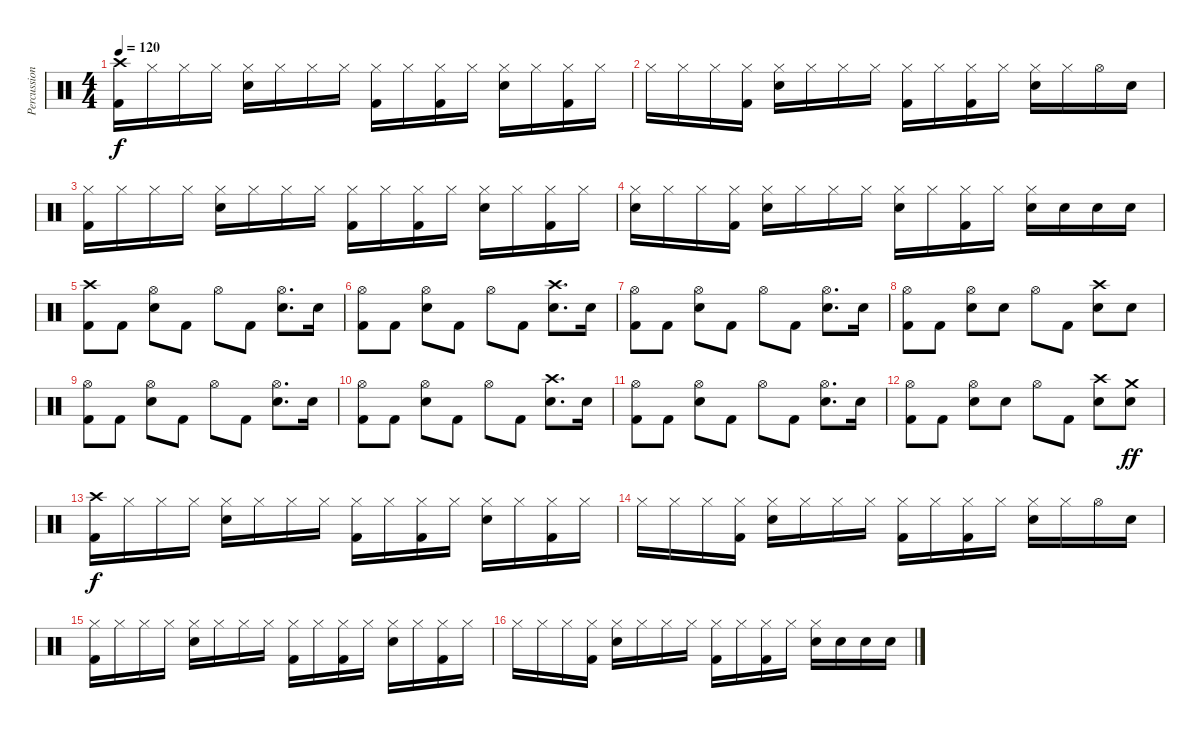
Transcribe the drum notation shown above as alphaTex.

\track ("Percussion" "Percussion") {instrument percussion}
\staff {score}
\articulation defaults
\ts (4 4)
\tempo 120
\clef neutral
\ks c
("Crash high (hit)" "Kick (hit) 2").16{dy f} "Hi-Hat (closed)".16 "Hi-Hat (closed)".16 "Hi-Hat (closed)".16 ("Hi-Hat (closed)" "Electric Snare (hit)").16 "Hi-Hat (closed)".16 "Hi-Hat (closed)".16 "Hi-Hat (closed)".16 ("Hi-Hat (closed)" "Kick (hit) 2").16 "Hi-Hat (closed)".16 ("Hi-Hat (closed)" "Kick (hit) 2").16 "Hi-Hat (closed)".16 ("Hi-Hat (closed)" "Electric Snare (hit)").16 "Hi-Hat (closed)".16 ("Hi-Hat (closed)" "Kick (hit) 2").16 "Hi-Hat (closed)".16 |
"Hi-Hat (closed)".16 "Hi-Hat (closed)".16 "Hi-Hat (closed)".16 ("Hi-Hat (closed)" "Kick (hit) 2").16 ("Hi-Hat (closed)" "Electric Snare (hit)").16 "Hi-Hat (closed)".16 "Hi-Hat (closed)".16 "Hi-Hat (closed)".16 ("Hi-Hat (closed)" "Kick (hit) 2").16 "Hi-Hat (closed)".16 ("Hi-Hat (closed)" "Kick (hit) 2").16 "Hi-Hat (closed)".16 ("Hi-Hat (closed)" "Electric Snare (hit)").16 "Hi-Hat (closed)".16 "Hi-Hat (open)".16 "Electric Snare (hit)".16 |
("Hi-Hat (closed)" "Kick (hit) 2").16 "Hi-Hat (closed)".16 "Hi-Hat (closed)".16 "Hi-Hat (closed)".16 ("Hi-Hat (closed)" "Electric Snare (hit)").16 "Hi-Hat (closed)".16 "Hi-Hat (closed)".16 "Hi-Hat (closed)".16 ("Hi-Hat (closed)" "Kick (hit) 2").16 "Hi-Hat (closed)".16 ("Hi-Hat (closed)" "Kick (hit) 2").16 "Hi-Hat (closed)".16 ("Hi-Hat (closed)" "Electric Snare (hit)").16 "Hi-Hat (closed)".16 ("Hi-Hat (closed)" "Kick (hit) 2").16 "Hi-Hat (closed)".16 |
("Hi-Hat (closed)" "Electric Snare (hit)").16 "Hi-Hat (closed)".16 "Hi-Hat (closed)".16 ("Hi-Hat (closed)" "Kick (hit) 2").16 ("Hi-Hat (closed)" "Electric Snare (hit)").16 "Hi-Hat (closed)".16 "Hi-Hat (closed)".16 "Hi-Hat (closed)".16 ("Hi-Hat (closed)" "Electric Snare (hit)").16 "Hi-Hat (closed)".16 ("Hi-Hat (closed)" "Kick (hit) 2").16 "Hi-Hat (closed)".16 ("Hi-Hat (closed)" "Electric Snare (hit)").16 "Electric Snare (hit)".16 "Electric Snare (hit)".16 "Electric Snare (hit)".16 |
("Crash high (hit)" "Kick (hit) 2").8 "Kick (hit) 2".8 ("Hi-Hat (open)" "Electric Snare (hit)").8 "Kick (hit) 2".8 "Hi-Hat (open)".8 "Kick (hit) 2".8 ("Hi-Hat (open)" "Electric Snare (hit)").8{d} "Electric Snare (hit)".16 |
("Hi-Hat (open)" "Kick (hit) 2").8 "Kick (hit) 2".8 ("Hi-Hat (open)" "Electric Snare (hit)").8 "Kick (hit) 2".8 "Hi-Hat (open)".8 "Kick (hit) 2".8 ("Crash high (hit)" "Electric Snare (hit)").8{d} "Electric Snare (hit)".16 |
("Hi-Hat (open)" "Kick (hit) 2").8 "Kick (hit) 2".8 ("Hi-Hat (open)" "Electric Snare (hit)").8 "Kick (hit) 2".8 "Hi-Hat (open)".8 "Kick (hit) 2".8 ("Hi-Hat (open)" "Electric Snare (hit)").8{d} "Electric Snare (hit)".16 |
("Hi-Hat (open)" "Kick (hit) 2").8 "Kick (hit) 2".8 ("Hi-Hat (open)" "Electric Snare (hit)").8 "Electric Snare (hit)".8 "Hi-Hat (open)".8 "Kick (hit) 2".8 ("Crash high (hit)" "Electric Snare (hit)").8 "Electric Snare (hit)".8 |
("Hi-Hat (open)" "Kick (hit) 2").8 "Kick (hit) 2".8 ("Hi-Hat (open)" "Electric Snare (hit)").8 "Kick (hit) 2".8 "Hi-Hat (open)".8 "Kick (hit) 2".8 ("Hi-Hat (open)" "Electric Snare (hit)").8{d} "Electric Snare (hit)".16 |
("Hi-Hat (open)" "Kick (hit) 2").8 "Kick (hit) 2".8 ("Hi-Hat (open)" "Electric Snare (hit)").8 "Kick (hit) 2".8 "Hi-Hat (open)".8 "Kick (hit) 2".8 ("Crash high (hit)" "Electric Snare (hit)").8{d} "Electric Snare (hit)".16 |
("Hi-Hat (open)" "Kick (hit) 2").8 "Kick (hit) 2".8 ("Hi-Hat (open)" "Electric Snare (hit)").8 "Kick (hit) 2".8 "Hi-Hat (open)".8 "Kick (hit) 2".8 ("Hi-Hat (open)" "Electric Snare (hit)").8{d} "Electric Snare (hit)".16 |
("Hi-Hat (open)" "Kick (hit) 2").8 "Kick (hit) 2".8 ("Hi-Hat (open)" "Electric Snare (hit)").8 "Electric Snare (hit)".8 "Hi-Hat (open)".8 "Kick (hit) 2".8 ("Crash high (hit)" "Electric Snare (hit)").8 ("Crash medium (hit)" "Electric Snare (hit)").8{dy ff} |
("Crash high (hit)" "Kick (hit) 2").16{dy f} "Hi-Hat (closed)".16 "Hi-Hat (closed)".16 "Hi-Hat (closed)".16 ("Hi-Hat (closed)" "Electric Snare (hit)").16 "Hi-Hat (closed)".16 "Hi-Hat (closed)".16 "Hi-Hat (closed)".16 ("Hi-Hat (closed)" "Kick (hit) 2").16 "Hi-Hat (closed)".16 ("Hi-Hat (closed)" "Kick (hit) 2").16 "Hi-Hat (closed)".16 ("Hi-Hat (closed)" "Electric Snare (hit)").16 "Hi-Hat (closed)".16 ("Hi-Hat (closed)" "Kick (hit) 2").16 "Hi-Hat (closed)".16 |
"Hi-Hat (closed)".16 "Hi-Hat (closed)".16 "Hi-Hat (closed)".16 ("Hi-Hat (closed)" "Kick (hit) 2").16 ("Hi-Hat (closed)" "Electric Snare (hit)").16 "Hi-Hat (closed)".16 "Hi-Hat (closed)".16 "Hi-Hat (closed)".16 ("Hi-Hat (closed)" "Kick (hit) 2").16 "Hi-Hat (closed)".16 ("Hi-Hat (closed)" "Kick (hit) 2").16 "Hi-Hat (closed)".16 ("Hi-Hat (closed)" "Electric Snare (hit)").16 "Hi-Hat (closed)".16 "Hi-Hat (open)".16 "Electric Snare (hit)".16 |
("Hi-Hat (closed)" "Kick (hit) 2").16 "Hi-Hat (closed)".16 "Hi-Hat (closed)".16 "Hi-Hat (closed)".16 ("Hi-Hat (closed)" "Electric Snare (hit)").16 "Hi-Hat (closed)".16 "Hi-Hat (closed)".16 "Hi-Hat (closed)".16 ("Hi-Hat (closed)" "Kick (hit) 2").16 "Hi-Hat (closed)".16 ("Hi-Hat (closed)" "Kick (hit) 2").16 "Hi-Hat (closed)".16 ("Hi-Hat (closed)" "Electric Snare (hit)").16 "Hi-Hat (closed)".16 ("Hi-Hat (closed)" "Kick (hit) 2").16 "Hi-Hat (closed)".16 |
"Hi-Hat (closed)".16 "Hi-Hat (closed)".16 "Hi-Hat (closed)".16 ("Hi-Hat (closed)" "Kick (hit) 2").16 ("Hi-Hat (closed)" "Electric Snare (hit)").16 "Hi-Hat (closed)".16 "Hi-Hat (closed)".16 "Hi-Hat (closed)".16 ("Hi-Hat (closed)" "Kick (hit) 2").16 "Hi-Hat (closed)".16 ("Hi-Hat (closed)" "Kick (hit) 2").16 "Hi-Hat (closed)".16 ("Hi-Hat (closed)" "Electric Snare (hit)").16 "Electric Snare (hit)".16 "Electric Snare (hit)".16 "Electric Snare (hit)".16
